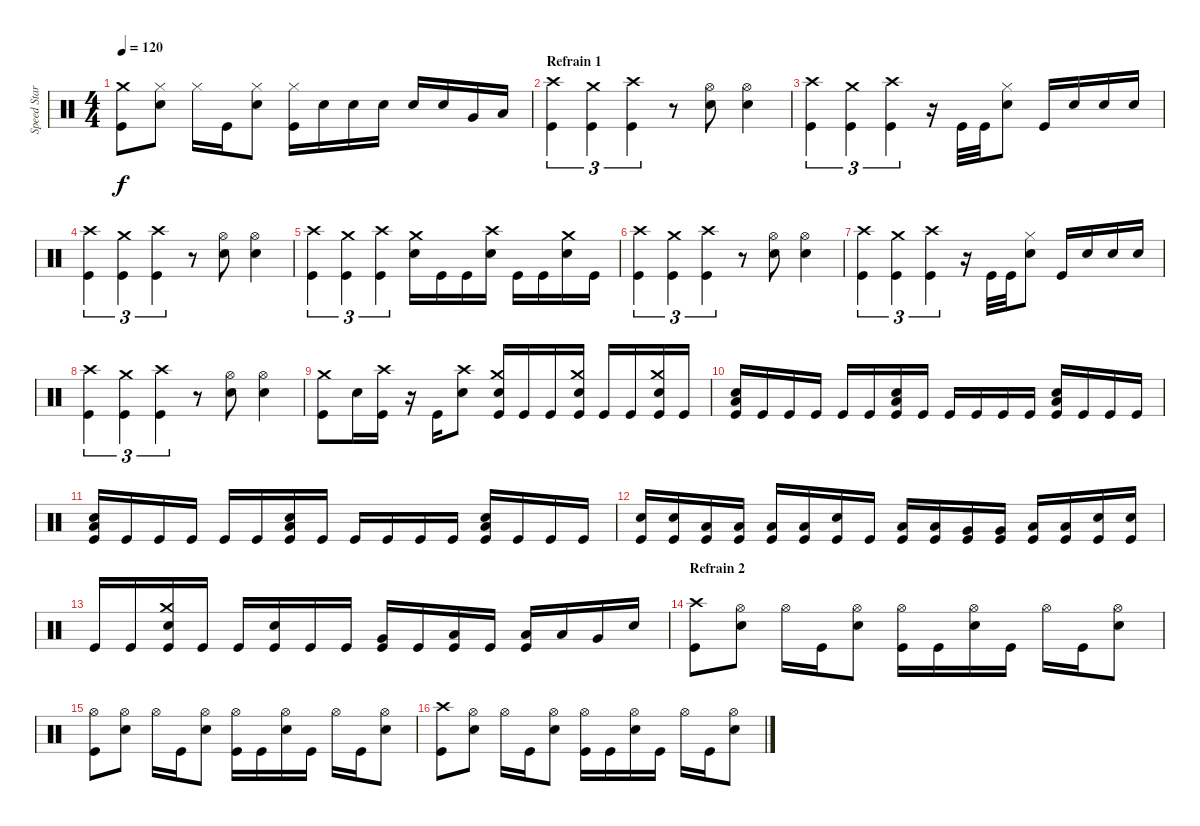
\track ("Speed Star" "Speed Star") {instrument percussion}
\staff {score}
\articulation defaults
\ts (4 4)
\tempo 120
\clef neutral
\ks c
("Kick (hit)" "Crash medium (hit)").8{dy f} ("Snare (hit) 2" "Hi-Hat (closed)").8 "Hi-Hat (closed)".16 "Kick (hit)".16 ("Snare (hit) 2" "Hi-Hat (closed)").8 ("Kick (hit)" "Hi-Hat (closed)").16 "Snare (hit) 2".16 "Snare (hit) 2".16 "Snare (hit) 2".16 "Snare (hit) 2".16 "Snare (hit) 2".16 "Very Low Tom (hit)".16 "Low Floor Tom (hit)".16 |
\section ("" "Refrain 1")
("Kick (hit)" "Crash high (hit)").4{tu (3 2)} ("Kick (hit)" "Crash medium (hit)").4{tu (3 2)} ("Kick (hit)" "Crash high (hit)").4{tu (3 2)} r.8 ("Snare (hit) 2" "Hi-Hat (open)").8 ("Snare (hit) 2" "Hi-Hat (open)").4 |
("Kick (hit)" "Crash high (hit)").4{tu (3 2)} ("Kick (hit)" "Crash medium (hit)").4{tu (3 2)} ("Kick (hit)" "Crash high (hit)").4{tu (3 2)} r.16 "Kick (hit)".32 "Kick (hit)".32 ("Snare (hit) 2" "Hi-Hat (closed)").8 "Kick (hit)".16 "Snare (hit) 2".16 "Snare (hit) 2".16 "Snare (hit) 2".16 |
("Kick (hit)" "Crash high (hit)").4{tu (3 2)} ("Kick (hit)" "Crash medium (hit)").4{tu (3 2)} ("Kick (hit)" "Crash high (hit)").4{tu (3 2)} r.8 ("Snare (hit) 2" "Hi-Hat (open)").8 ("Snare (hit) 2" "Hi-Hat (open)").4 |
("Kick (hit)" "Crash high (hit)").4{tu (3 2)} ("Kick (hit)" "Crash medium (hit)").4{tu (3 2)} ("Kick (hit)" "Crash high (hit)").4{tu (3 2)} ("Snare (hit) 2" "Crash medium (hit)").16 "Kick (hit)".16 "Kick (hit)".16 ("Snare (hit) 2" "Crash high (hit)").16 "Kick (hit)".16 "Kick (hit)".16 ("Snare (hit) 2" "Crash medium (hit)").16 "Kick (hit)".16 |
("Kick (hit)" "Crash high (hit)").4{tu (3 2)} ("Kick (hit)" "Crash medium (hit)").4{tu (3 2)} ("Kick (hit)" "Crash high (hit)").4{tu (3 2)} r.8 ("Snare (hit) 2" "Hi-Hat (open)").8 ("Snare (hit) 2" "Hi-Hat (open)").4 |
("Kick (hit)" "Crash high (hit)").4{tu (3 2)} ("Kick (hit)" "Crash medium (hit)").4{tu (3 2)} ("Kick (hit)" "Crash high (hit)").4{tu (3 2)} r.16 "Kick (hit)".32 "Kick (hit)".32 ("Snare (hit) 2" "Hi-Hat (closed)").8 "Kick (hit)".16 "Snare (hit) 2".16 "Snare (hit) 2".16 "Snare (hit) 2".16 |
("Kick (hit)" "Crash high (hit)").4{tu (3 2)} ("Kick (hit)" "Crash medium (hit)").4{tu (3 2)} ("Kick (hit)" "Crash high (hit)").4{tu (3 2)} r.8 ("Snare (hit) 2" "Hi-Hat (open)").8 ("Snare (hit) 2" "Hi-Hat (open)").4 |
("Kick (hit)" "Crash medium (hit)").8 "Snare (hit) 2".16 ("Kick (hit)" "Crash high (hit)").16 r.16 "Kick (hit)".16 ("Snare (hit) 2" "Crash high (hit)").8 ("Kick (hit)" "Snare (hit) 2" "Crash medium (hit)").16 "Kick (hit)".16 "Kick (hit)".16 ("Kick (hit)" "Snare (hit) 2" "Crash medium (hit)").16 "Kick (hit)".16 "Kick (hit)".16 ("Kick (hit)" "Snare (hit) 2" "Crash medium (hit)").16 "Kick (hit)".16 |
("Kick (hit)" "Low Floor Tom (hit)" "Snare (hit) 2").16 "Kick (hit)".16 "Kick (hit)".16 "Kick (hit)".16 "Kick (hit)".16 "Kick (hit)".16 ("Kick (hit)" "Low Floor Tom (hit)" "Snare (hit) 2").16 "Kick (hit)".16 "Kick (hit)".16 "Kick (hit)".16 "Kick (hit)".16 "Kick (hit)".16 ("Kick (hit)" "Low Floor Tom (hit)" "Snare (hit) 2").16 "Kick (hit)".16 "Kick (hit)".16 "Kick (hit)".16 |
("Kick (hit)" "Low Floor Tom (hit)" "Snare (hit) 2").16 "Kick (hit)".16 "Kick (hit)".16 "Kick (hit)".16 "Kick (hit)".16 "Kick (hit)".16 ("Kick (hit)" "Low Floor Tom (hit)" "Snare (hit) 2").16 "Kick (hit)".16 "Kick (hit)".16 "Kick (hit)".16 "Kick (hit)".16 "Kick (hit)".16 ("Kick (hit)" "Low Floor Tom (hit)" "Snare (hit) 2").16 "Kick (hit)".16 "Kick (hit)".16 "Kick (hit)".16 |
("Kick (hit)" "Snare (hit) 2").16 ("Kick (hit)" "Snare (hit) 2").16 ("Kick (hit)" "Low Floor Tom (hit)").16 ("Kick (hit)" "Low Floor Tom (hit)").16 ("Kick (hit)" "Low Tom (hit)").16 ("Kick (hit)" "Low Tom (hit)").16 ("Kick (hit)" "Snare (hit) 2").16 "Kick (hit)".16 ("Kick (hit)" "Low Tom (hit)").16 ("Kick (hit)" "Low Tom (hit)").16 ("Kick (hit)" "Very Low Tom (hit)").16 ("Kick (hit)" "Very Low Tom (hit)").16 ("Kick (hit)" "Low Floor Tom (hit)").16 ("Kick (hit)" "Low Floor Tom (hit)").16 ("Kick (hit)" "Snare (hit) 2").16 ("Kick (hit)" "Snare (hit) 2").16 |
"Kick (hit)".16 "Kick (hit)".16 ("Kick (hit)" "Snare (hit) 2" "Crash medium (hit)").16 "Kick (hit)".16 "Kick (hit)".16 ("Kick (hit)" "Snare (hit) 2").16 "Kick (hit)".16 "Kick (hit)".16 ("Kick (hit)" "Very Low Tom (hit)").16 "Kick (hit)".16 ("Kick (hit)" "Low Floor Tom (hit)").16 "Kick (hit)".16 ("Kick (hit)" "Low Floor Tom (hit)").16 "Low Floor Tom (hit)".16 "Very Low Tom (hit)".16 "Snare (hit) 2".16 |
\section ("" "Refrain 2")
("Kick (hit)" "Crash high (hit)").8 ("Snare (hit) 2" "Hi-Hat (open)").8 "Hi-Hat (open)".16 "Kick (hit)".16 ("Snare (hit) 2" "Hi-Hat (open)").8 ("Kick (hit)" "Hi-Hat (open)").16 "Kick (hit)".16 ("Snare (hit) 2" "Hi-Hat (open)").16 "Kick (hit)".16 "Hi-Hat (open)".16 "Kick (hit)".16 ("Snare (hit) 2" "Hi-Hat (open)").8 |
("Kick (hit)" "Hi-Hat (open)").8 ("Snare (hit) 2" "Hi-Hat (open)").8 "Hi-Hat (open)".16 "Kick (hit)".16 ("Snare (hit) 2" "Hi-Hat (open)").8 ("Kick (hit)" "Hi-Hat (open)").16 "Kick (hit)".16 ("Snare (hit) 2" "Hi-Hat (open)").16 "Kick (hit)".16 "Hi-Hat (open)".16 "Kick (hit)".16 ("Snare (hit) 2" "Hi-Hat (open)").8 |
("Kick (hit)" "Crash high (hit)").8 ("Snare (hit) 2" "Hi-Hat (open)").8 "Hi-Hat (open)".16 "Kick (hit)".16 ("Snare (hit) 2" "Hi-Hat (open)").8 ("Kick (hit)" "Hi-Hat (open)").16 "Kick (hit)".16 ("Snare (hit) 2" "Hi-Hat (open)").16 "Kick (hit)".16 "Hi-Hat (open)".16 "Kick (hit)".16 ("Snare (hit) 2" "Hi-Hat (open)").8
